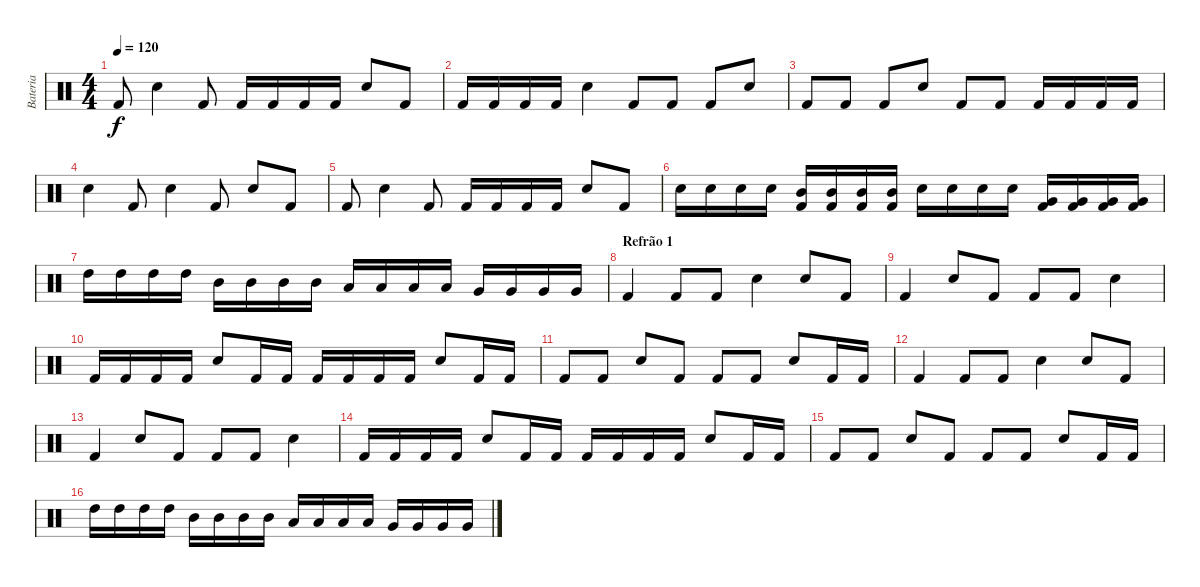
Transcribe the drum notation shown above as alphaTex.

\track ("Bateria" "Bateria") {instrument percussion}
\staff {score}
\articulation defaults
\ts (4 4)
\tempo 120
\clef neutral
\ks c "Kick (hit) 2".8{dy f} "Snare (hit) 2".4 "Kick (hit) 2".8 "Kick (hit) 2".16 "Kick (hit) 2".16 "Kick (hit) 2".16 "Kick (hit) 2".16 "Snare (hit) 2".8 "Kick (hit) 2".8
|
"Kick (hit) 2".16 "Kick (hit) 2".16 "Kick (hit) 2".16 "Kick (hit) 2".16 "Snare (hit) 2".4 "Kick (hit) 2".8 "Kick (hit) 2".8 "Kick (hit) 2".8 "Snare (hit) 2".8 |
"Kick (hit) 2".8 "Kick (hit) 2".8 "Kick (hit) 2".8 "Snare (hit) 2".8 "Kick (hit) 2".8 "Kick (hit) 2".8 "Kick (hit) 2".16 "Kick (hit) 2".16 "Kick (hit) 2".16 "Kick (hit) 2".16 |
"Snare (hit) 2".4 "Kick (hit) 2".8 "Snare (hit) 2".4 "Kick (hit) 2".8 "Snare (hit) 2".8 "Kick (hit) 2".8 |
"Kick (hit) 2".8 "Snare (hit) 2".4 "Kick (hit) 2".8 "Kick (hit) 2".16 "Kick (hit) 2".16 "Kick (hit) 2".16 "Kick (hit) 2".16 "Snare (hit) 2".8 "Kick (hit) 2".8 |
"Snare (hit) 2".16 "Snare (hit) 2".16 "Snare (hit) 2".16 "Snare (hit) 2".16 ("Kick (hit) 2" "Mid Tom (hit)").16 ("Kick (hit) 2" "Mid Tom (hit)").16 ("Kick (hit) 2" "Mid Tom (hit)").16 ("Kick (hit) 2" "Mid Tom (hit)").16 "Snare (hit) 2".16 "Snare (hit) 2".16 "Snare (hit) 2".16 "Snare (hit) 2".16 ("Kick (hit) 2" "Very Low Tom (hit)").16 ("Kick (hit) 2" "Very Low Tom (hit)").16 ("Kick (hit) 2" "Very Low Tom (hit)").16 ("Kick (hit) 2" "Very Low Tom (hit)").16 |
"High Tom (hit)".16 "High Tom (hit)".16 "High Tom (hit)".16 "High Tom (hit)".16 "Mid Tom (hit)".16 "Mid Tom (hit)".16 "Mid Tom (hit)".16 "Mid Tom (hit)".16 "Low Tom (hit)".16 "Low Tom (hit)".16 "Low Tom (hit)".16 "Low Tom (hit)".16 "Very Low Tom (hit)".16 "Very Low Tom (hit)".16 "Very Low Tom (hit)".16 "Very Low Tom (hit)".16 |
\section ("" "Refrão 1")
"Kick (hit) 2".4 "Kick (hit) 2".8 "Kick (hit) 2".8 "Snare (hit) 2".4 "Snare (hit) 2".8 "Kick (hit) 2".8 |
"Kick (hit) 2".4 "Snare (hit) 2".8 "Kick (hit) 2".8 "Kick (hit) 2".8 "Kick (hit) 2".8 "Snare (hit) 2".4 |
"Kick (hit) 2".16 "Kick (hit) 2".16 "Kick (hit) 2".16 "Kick (hit) 2".16 "Snare (hit) 2".8 "Kick (hit) 2".16 "Kick (hit) 2".16 "Kick (hit) 2".16 "Kick (hit) 2".16 "Kick (hit) 2".16 "Kick (hit) 2".16 "Snare (hit) 2".8 "Kick (hit) 2".16 "Kick (hit) 2".16 |
"Kick (hit) 2".8 "Kick (hit) 2".8 "Snare (hit) 2".8 "Kick (hit) 2".8 "Kick (hit) 2".8 "Kick (hit) 2".8 "Snare (hit) 2".8 "Kick (hit) 2".16 "Kick (hit) 2".16 |
"Kick (hit) 2".4 "Kick (hit) 2".8 "Kick (hit) 2".8 "Snare (hit) 2".4 "Snare (hit) 2".8 "Kick (hit) 2".8 |
"Kick (hit) 2".4 "Snare (hit) 2".8 "Kick (hit) 2".8 "Kick (hit) 2".8 "Kick (hit) 2".8 "Snare (hit) 2".4 |
"Kick (hit) 2".16 "Kick (hit) 2".16 "Kick (hit) 2".16 "Kick (hit) 2".16 "Snare (hit) 2".8 "Kick (hit) 2".16 "Kick (hit) 2".16 "Kick (hit) 2".16 "Kick (hit) 2".16 "Kick (hit) 2".16 "Kick (hit) 2".16 "Snare (hit) 2".8 "Kick (hit) 2".16 "Kick (hit) 2".16 |
"Kick (hit) 2".8 "Kick (hit) 2".8 "Snare (hit) 2".8 "Kick (hit) 2".8 "Kick (hit) 2".8 "Kick (hit) 2".8 "Snare (hit) 2".8 "Kick (hit) 2".16 "Kick (hit) 2".16 |
"High Tom (hit)".16 "High Tom (hit)".16 "High Tom (hit)".16 "High Tom (hit)".16 "Mid Tom (hit)".16 "Mid Tom (hit)".16 "Mid Tom (hit)".16 "Mid Tom (hit)".16 "Low Tom (hit)".16 "Low Tom (hit)".16 "Low Tom (hit)".16 "Low Tom (hit)".16 "Very Low Tom (hit)".16 "Very Low Tom (hit)".16 "Very Low Tom (hit)".16 "Very Low Tom (hit)".16
